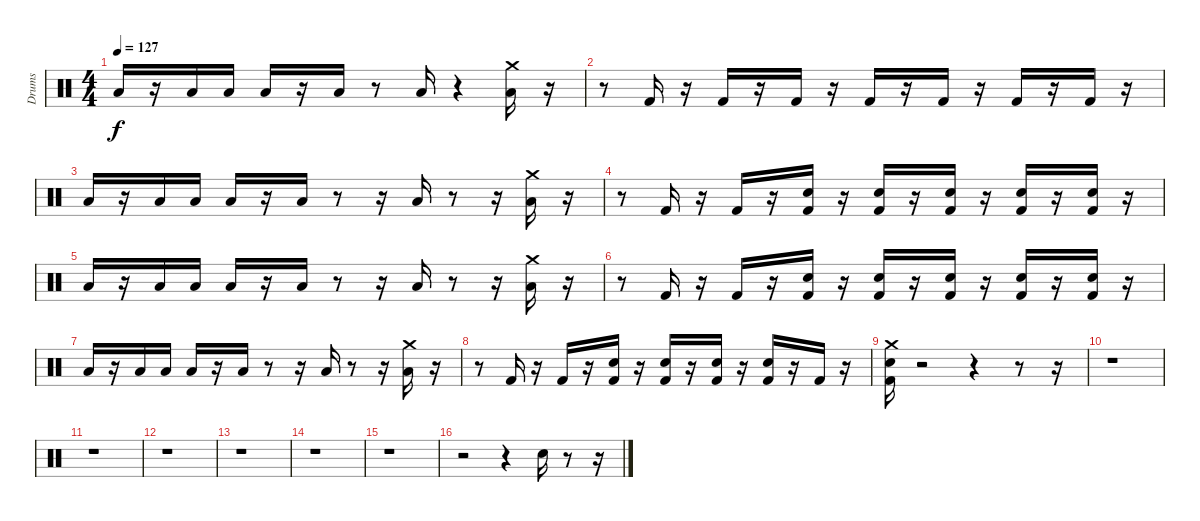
\track ("Drums               " "Drums     ") {instrument percussion}
\staff {score}
\articulation defaults
\ts (4 4)
\tempo 127
\clef neutral
\ks c "Low Floor Tom (hit)".16{dy f}
r.16 "Low Floor Tom (hit)".16 "Low Floor Tom (hit)".16 "Low Floor Tom (hit)".16 r.16 "Low Floor Tom (hit)".16 r.8 "Low Floor Tom (hit)".16 r.4 ("Low Floor Tom (hit)" "Crash medium (hit)").16 r.16 |
r.8 "Kick (hit) 2".16 r.16 "Kick (hit) 2".16 r.16 "Kick (hit) 2".16 r.16 "Kick (hit) 2".16 r.16 "Kick (hit) 2".16 r.16 "Kick (hit) 2".16 r.16 "Kick (hit) 2".16 r.16 |
"Low Floor Tom (hit)".16 r.16 "Low Floor Tom (hit)".16 "Low Floor Tom (hit)".16 "Low Floor Tom (hit)".16 r.16 "Low Floor Tom (hit)".16 r.8 r.16 "Low Floor Tom (hit)".16 r.8 r.16 ("Low Floor Tom (hit)" "Crash medium (hit)").16 r.16 |
r.8 "Kick (hit) 2".16 r.16 "Kick (hit) 2".16 r.16 ("Kick (hit) 2" "Electric Snare (hit)").16 r.16 ("Kick (hit) 2" "Electric Snare (hit)").16 r.16 ("Kick (hit) 2" "Electric Snare (hit)").16 r.16 ("Kick (hit) 2" "Electric Snare (hit)").16 r.16 ("Kick (hit) 2" "Electric Snare (hit)").16 r.16 |
"Low Floor Tom (hit)".16 r.16 "Low Floor Tom (hit)".16 "Low Floor Tom (hit)".16 "Low Floor Tom (hit)".16 r.16 "Low Floor Tom (hit)".16 r.8 r.16 "Low Floor Tom (hit)".16 r.8 r.16 ("Low Floor Tom (hit)" "Crash medium (hit)").16 r.16 |
r.8 "Kick (hit) 2".16 r.16 "Kick (hit) 2".16 r.16 ("Kick (hit) 2" "Electric Snare (hit)").16 r.16 ("Kick (hit) 2" "Electric Snare (hit)").16 r.16 ("Kick (hit) 2" "Electric Snare (hit)").16 r.16 ("Kick (hit) 2" "Electric Snare (hit)").16 r.16 ("Kick (hit) 2" "Electric Snare (hit)").16 r.16 |
"Low Floor Tom (hit)".16 r.16 "Low Floor Tom (hit)".16 "Low Floor Tom (hit)".16 "Low Floor Tom (hit)".16 r.16 "Low Floor Tom (hit)".16 r.8 r.16 "Low Floor Tom (hit)".16 r.8 r.16 ("Low Floor Tom (hit)" "Crash medium (hit)").16 r.16 |
r.8 "Kick (hit) 2".16 r.16 "Kick (hit) 2".16 r.16 ("Kick (hit) 2" "Electric Snare (hit)").16 r.16 ("Kick (hit) 2" "Electric Snare (hit)").16 r.16 ("Kick (hit) 2" "Electric Snare (hit)").16 r.16 ("Kick (hit) 2" "Electric Snare (hit)").16 r.16 "Kick (hit) 2".16 r.16 |
("Kick (hit) 2" "Crash medium (hit)" "Electric Snare (hit)").16 r.2 r.4 r.8 r.16 |
r.1 |
r.1 |
r.1 |
r.1 |
r.1 |
r.1 |
r.2 r.4 "Electric Snare (hit)".16 r.8 r.16
